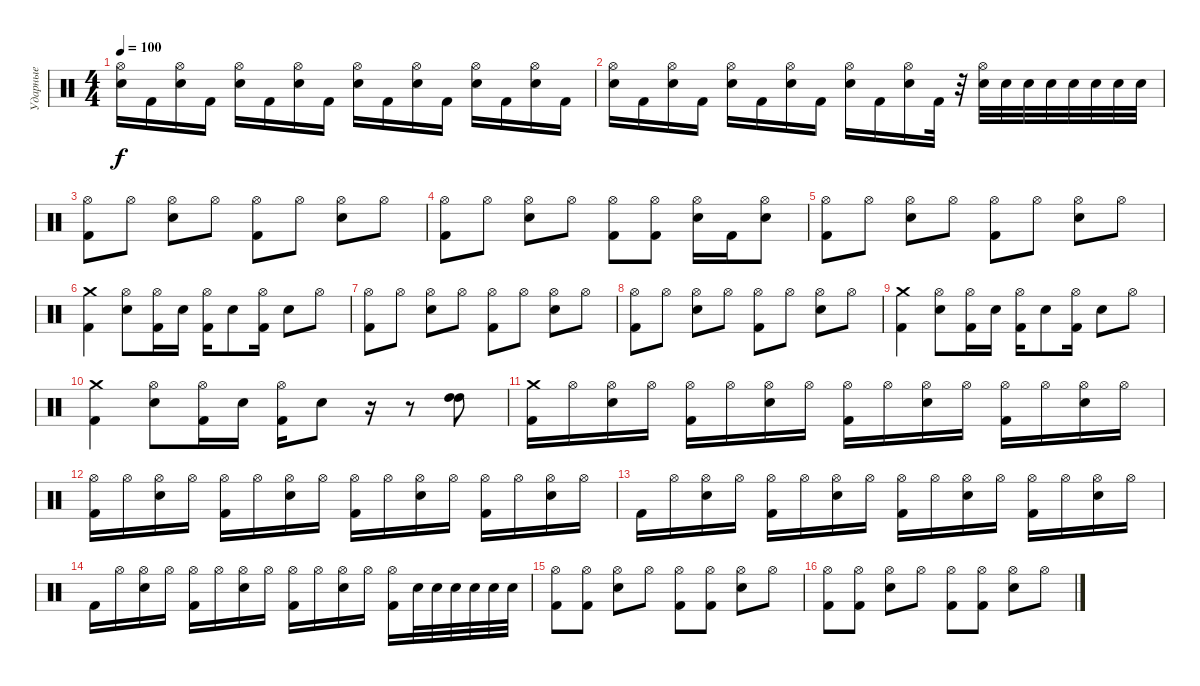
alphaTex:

\track ("Ударные" "Ударные") {instrument percussion}
\staff {score}
\articulation defaults
\ts (4 4)
\tempo 100
\clef neutral
\ks c
("Hi-Hat (open)" "Electric Snare (hit)").16{dy f} "Kick (hit) 2".16 ("Hi-Hat (open)" "Electric Snare (hit)").16 "Kick (hit) 2".16 ("Hi-Hat (open)" "Electric Snare (hit)").16 "Kick (hit) 2".16 ("Hi-Hat (open)" "Electric Snare (hit)").16 "Kick (hit) 2".16 ("Hi-Hat (open)" "Electric Snare (hit)").16 "Kick (hit) 2".16 ("Hi-Hat (open)" "Electric Snare (hit)").16 "Kick (hit) 2".16 ("Hi-Hat (open)" "Electric Snare (hit)").16 "Kick (hit) 2".16 ("Hi-Hat (open)" "Electric Snare (hit)").16 "Kick (hit) 2".16 |
("Hi-Hat (open)" "Electric Snare (hit)").16 "Kick (hit) 2".16 ("Hi-Hat (open)" "Electric Snare (hit)").16 "Kick (hit) 2".16 ("Hi-Hat (open)" "Electric Snare (hit)").16 "Kick (hit) 2".16 ("Hi-Hat (open)" "Electric Snare (hit)").16 "Kick (hit) 2".16 ("Hi-Hat (open)" "Electric Snare (hit)").16 "Kick (hit) 2".16 ("Hi-Hat (open)" "Electric Snare (hit)").16 "Kick (hit) 2".32 r.32 ("Hi-Hat (open)" "Electric Snare (hit)").32 "Snare (hit) 2".32 "Snare (hit) 2".32 "Snare (hit) 2".32 "Snare (hit) 2".32 "Snare (hit) 2".32 "Snare (hit) 2".32 "Snare (hit) 2".32 |
("Hi-Hat (open)" "Kick (hit) 2").8 "Hi-Hat (open)".8 ("Hi-Hat (open)" "Electric Snare (hit)").8 "Hi-Hat (open)".8 ("Hi-Hat (open)" "Kick (hit) 2").8 "Hi-Hat (open)".8 ("Hi-Hat (open)" "Electric Snare (hit)").8 "Hi-Hat (open)".8 |
("Hi-Hat (open)" "Kick (hit) 2").8 "Hi-Hat (open)".8 ("Hi-Hat (open)" "Electric Snare (hit)").8 "Hi-Hat (open)".8 ("Hi-Hat (open)" "Kick (hit) 2").8 ("Hi-Hat (open)" "Kick (hit) 2").8 ("Hi-Hat (open)" "Electric Snare (hit)").16 "Kick (hit) 2".16 ("Hi-Hat (open)" "Electric Snare (hit)").8 |
("Hi-Hat (open)" "Kick (hit) 2").8 "Hi-Hat (open)".8 ("Hi-Hat (open)" "Electric Snare (hit)").8 "Hi-Hat (open)".8 ("Hi-Hat (open)" "Kick (hit) 2").8 "Hi-Hat (open)".8 ("Hi-Hat (open)" "Electric Snare (hit)").8 "Hi-Hat (open)".8 |
("Crash medium (hit)" "Kick (hit) 2").4 ("Hi-Hat (open)" "Electric Snare (hit)").8 ("Hi-Hat (open)" "Kick (hit) 2").16 "Electric Snare (hit)".16 ("Hi-Hat (open)" "Kick (hit) 2").16 "Electric Snare (hit)".8 ("Hi-Hat (open)" "Kick (hit) 2").16 "Electric Snare (hit)".8 "Hi-Hat (open)".8 |
("Hi-Hat (open)" "Kick (hit) 2").8 "Hi-Hat (open)".8 ("Hi-Hat (open)" "Electric Snare (hit)").8 "Hi-Hat (open)".8 ("Hi-Hat (open)" "Kick (hit) 2").8 "Hi-Hat (open)".8 ("Hi-Hat (open)" "Electric Snare (hit)").8 "Hi-Hat (open)".8 |
("Hi-Hat (open)" "Kick (hit) 2").8 "Hi-Hat (open)".8 ("Hi-Hat (open)" "Electric Snare (hit)").8 "Hi-Hat (open)".8 ("Hi-Hat (open)" "Kick (hit) 2").8 "Hi-Hat (open)".8 ("Hi-Hat (open)" "Electric Snare (hit)").8 "Hi-Hat (open)".8 |
("Crash medium (hit)" "Kick (hit) 2").4 ("Hi-Hat (open)" "Electric Snare (hit)").8 ("Hi-Hat (open)" "Kick (hit) 2").16 "Electric Snare (hit)".16 ("Hi-Hat (open)" "Kick (hit) 2").16 "Electric Snare (hit)".8 ("Hi-Hat (open)" "Kick (hit) 2").16 "Electric Snare (hit)".8 "Hi-Hat (open)".8 |
("Crash medium (hit)" "Kick (hit) 2").4 ("Hi-Hat (open)" "Electric Snare (hit)").8 ("Hi-Hat (open)" "Kick (hit) 2").16 "Electric Snare (hit)".16 ("Hi-Hat (open)" "Kick (hit) 2").16 "Electric Snare (hit)".8 r.16 r.8 ("High Tom (hit)" "High Tom (hit)").8 |
("Crash medium (hit)" "Kick (hit) 2").16 "Hi-Hat (open)".16 ("Hi-Hat (open)" "Electric Snare (hit)").16 "Hi-Hat (open)".16 ("Hi-Hat (open)" "Kick (hit) 2").16 "Hi-Hat (open)".16 ("Hi-Hat (open)" "Electric Snare (hit)").16 "Hi-Hat (open)".16 ("Hi-Hat (open)" "Kick (hit) 2").16 "Hi-Hat (open)".16 ("Hi-Hat (open)" "Electric Snare (hit)").16 "Hi-Hat (open)".16 ("Hi-Hat (open)" "Kick (hit) 2").16 "Hi-Hat (open)".16 ("Hi-Hat (open)" "Electric Snare (hit)").16 "Hi-Hat (open)".16 |
("Hi-Hat (open)" "Kick (hit) 2").16 "Hi-Hat (open)".16 ("Hi-Hat (open)" "Electric Snare (hit)").16 "Hi-Hat (open)".16 ("Hi-Hat (open)" "Kick (hit) 2").16 "Hi-Hat (open)".16 ("Hi-Hat (open)" "Electric Snare (hit)").16 "Hi-Hat (open)".16 ("Hi-Hat (open)" "Kick (hit) 2").16 "Hi-Hat (open)".16 ("Hi-Hat (open)" "Electric Snare (hit)").16 "Hi-Hat (open)".16 ("Hi-Hat (open)" "Kick (hit) 2").16 "Hi-Hat (open)".16 ("Hi-Hat (open)" "Electric Snare (hit)").16 "Hi-Hat (open)".16 |
"Kick (hit) 2".16 "Hi-Hat (open)".16 ("Hi-Hat (open)" "Electric Snare (hit)").16 "Hi-Hat (open)".16 ("Hi-Hat (open)" "Kick (hit) 2").16 "Hi-Hat (open)".16 ("Hi-Hat (open)" "Electric Snare (hit)").16 "Hi-Hat (open)".16 ("Hi-Hat (open)" "Kick (hit) 2").16 "Hi-Hat (open)".16 ("Hi-Hat (open)" "Electric Snare (hit)").16 "Hi-Hat (open)".16 ("Hi-Hat (open)" "Kick (hit) 2").16 "Hi-Hat (open)".16 ("Hi-Hat (open)" "Electric Snare (hit)").16 "Hi-Hat (open)".16 |
"Kick (hit) 2".16 "Hi-Hat (open)".16 ("Hi-Hat (open)" "Electric Snare (hit)").16 "Hi-Hat (open)".16 ("Hi-Hat (open)" "Kick (hit) 2").16 "Hi-Hat (open)".16 ("Hi-Hat (open)" "Electric Snare (hit)").16 "Hi-Hat (open)".16 ("Hi-Hat (open)" "Kick (hit) 2").16 "Hi-Hat (open)".16 ("Hi-Hat (open)" "Electric Snare (hit)").16 "Hi-Hat (open)".16 ("Hi-Hat (open)" "Kick (hit) 2").16 "Snare (hit) 2".32 "Snare (hit) 2".32 "Snare (hit) 2".32 "Snare (hit) 2".32 "Snare (hit) 2".32 "Snare (hit) 2".32 |
("Hi-Hat (open)" "Kick (hit) 2").8 ("Hi-Hat (open)" "Kick (hit) 2").8 ("Hi-Hat (open)" "Electric Snare (hit)").8 "Hi-Hat (open)".8 ("Hi-Hat (open)" "Kick (hit) 2").8 ("Hi-Hat (open)" "Kick (hit) 2").8 ("Hi-Hat (open)" "Electric Snare (hit)").8 "Hi-Hat (open)".8 |
("Hi-Hat (open)" "Kick (hit) 2").8 ("Hi-Hat (open)" "Kick (hit) 2").8 ("Hi-Hat (open)" "Electric Snare (hit)").8 "Hi-Hat (open)".8 ("Hi-Hat (open)" "Kick (hit) 2").8 ("Hi-Hat (open)" "Kick (hit) 2").8 ("Hi-Hat (open)" "Electric Snare (hit)").8 "Hi-Hat (open)".8
